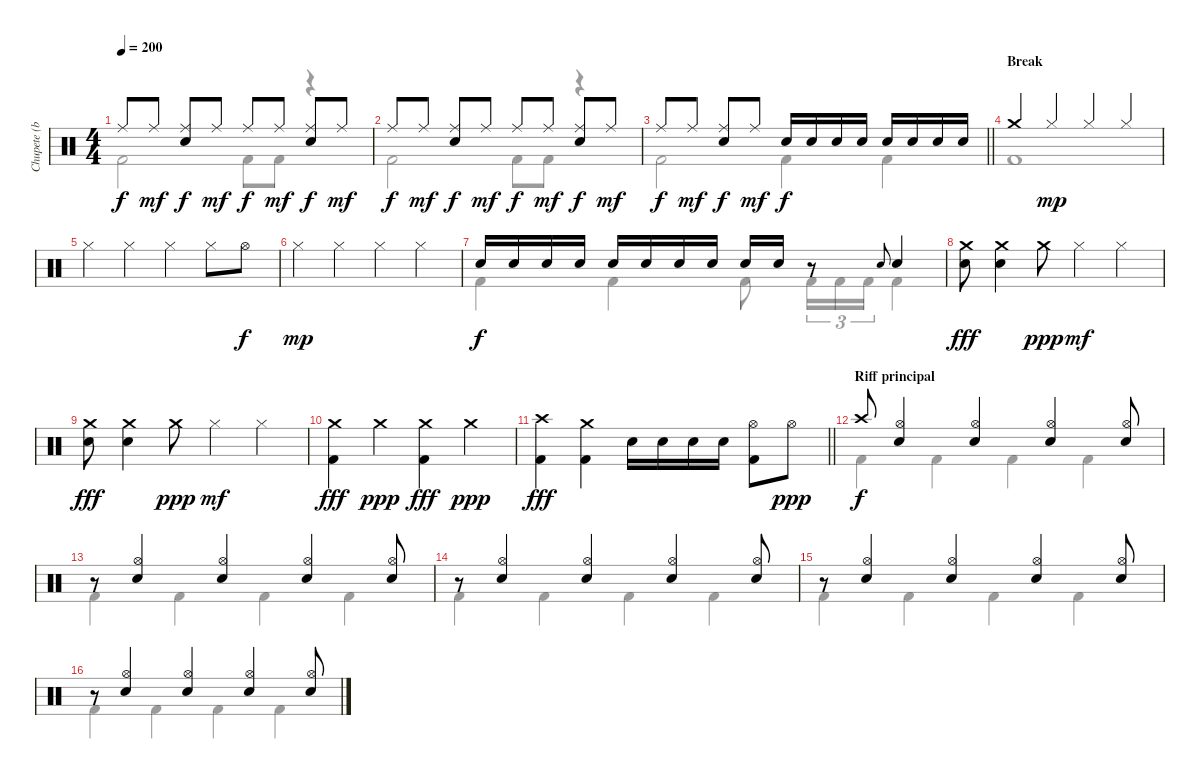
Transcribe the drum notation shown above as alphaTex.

\track ("Chupete (batería)" "Chupete (b") {instrument percussion}
\staff {score}
\articulation defaults
\voice
\ts (4 4)
\tempo 200
\clef neutral
\ks c "Ride (middle)".8{dy f} "Ride (middle)".8{dy mf}
("Ride (middle)" "Electric Snare (hit)").8{dy f} "Ride (middle)".8{dy mf} "Ride (middle)".8{dy f} "Ride (middle)".8{dy mf} ("Ride (middle)" "Electric Snare (hit)").8{dy f} "Ride (middle)".8{dy mf} |
"Ride (middle)".8{dy f} "Ride (middle)".8{dy mf} ("Ride (middle)" "Electric Snare (hit)").8{dy f} "Ride (middle)".8{dy mf} "Ride (middle)".8{dy f} "Ride (middle)".8{dy mf} ("Ride (middle)" "Electric Snare (hit)").8{dy f} "Ride (middle)".8{dy mf} |
\barLineRight lightlight "Ride (middle)".8{dy f} "Ride (middle)".8{dy mf}
("Ride (middle)" "Electric Snare (hit)").8{dy f} "Ride (middle)".8{dy mf} "Electric Snare (hit)".16{dy f} "Electric Snare (hit)".16 "Electric Snare (hit)".16 "Electric Snare (hit)".16 "Electric Snare (hit)".16 "Electric Snare (hit)".16 "Electric Snare (hit)".16 "Electric Snare (hit)".16 |
\section ("" "Break")
"Crash medium (hit)".4 "Hi-Hat (closed)".4{dy mp} "Hi-Hat (closed)".4 "Hi-Hat (closed)".4 |
"Hi-Hat (closed)".4 "Hi-Hat (closed)".4 "Hi-Hat (closed)".4 "Hi-Hat (closed)".8 "Hi-Hat (open)".8{dy f} |
"Hi-Hat (closed)".4{dy mp} "Hi-Hat (closed)".4 "Hi-Hat (closed)".4 "Hi-Hat (closed)".4 |
"Electric Snare (hit)".16{dy f} "Electric Snare (hit)".16 "Electric Snare (hit)".16 "Electric Snare (hit)".16 "Electric Snare (hit)".16 "Electric Snare (hit)".16 "Electric Snare (hit)".16 "Electric Snare (hit)".16 "Electric Snare (hit)".16 "Electric Snare (hit)".16 r.8 "Electric Snare (hit)".8{gr onbeat} "Electric Snare (hit)".4 |
("Crash medium (hit)" "Electric Snare (hit)").8{dy fff} ("Crash medium (hit)" "Electric Snare (hit)").4 "Crash medium (hit)".8{dy ppp} "Hi-Hat (closed)".4{dy mf} "Hi-Hat (closed)".4 |
("Crash medium (hit)" "Electric Snare (hit)").8{dy fff} ("Crash medium (hit)" "Electric Snare (hit)").4 "Crash medium (hit)".8{dy ppp} "Hi-Hat (closed)".4{dy mf} "Hi-Hat (closed)".4 |
("Crash medium (hit)" "Kick (hit) 2").4{dy fff} "Crash medium (hit)".4{dy ppp} ("Crash medium (hit)" "Kick (hit) 2").4{dy fff} "Crash medium (hit)".4{dy ppp} |
\barLineRight lightlight
("Crash high (hit)" "Kick (hit) 2").4{dy fff} ("Crash medium (hit)" "Kick (hit) 2").4 "Electric Snare (hit)".16 "Electric Snare (hit)".16 "Electric Snare (hit)".16 "Electric Snare (hit)".16 ("Hi-Hat (open)" "Kick (hit) 2").8 "Hi-Hat (open)".8{dy ppp} |
\section ("" "Riff principal")
"Crash high (hit)".8{dy f} ("Hi-Hat (open)" "Electric Snare (hit)").4 ("Hi-Hat (open)" "Electric Snare (hit)").4 ("Hi-Hat (open)" "Electric Snare (hit)").4 ("Hi-Hat (open)" "Electric Snare (hit)").8 |
r.8 ("Hi-Hat (open)" "Electric Snare (hit)").4 ("Hi-Hat (open)" "Electric Snare (hit)").4 ("Hi-Hat (open)" "Electric Snare (hit)").4 ("Hi-Hat (open)" "Electric Snare (hit)").8 |
r.8 ("Hi-Hat (open)" "Electric Snare (hit)").4 ("Hi-Hat (open)" "Electric Snare (hit)").4 ("Hi-Hat (open)" "Electric Snare (hit)").4 ("Hi-Hat (open)" "Electric Snare (hit)").8 |
r.8 ("Hi-Hat (open)" "Electric Snare (hit)").4 ("Hi-Hat (open)" "Electric Snare (hit)").4 ("Hi-Hat (open)" "Electric Snare (hit)").4 ("Hi-Hat (open)" "Electric Snare (hit)").8 |
r.8 ("Hi-Hat (open)" "Electric Snare (hit)").4 ("Hi-Hat (open)" "Electric Snare (hit)").4 ("Hi-Hat (open)" "Electric Snare (hit)").4 ("Hi-Hat (open)" "Electric Snare (hit)").8
\voice
\clef neutral
\ottava regular
\simile none
\ks c "Kick (hit) 2".2{dy f} "Kick (hit) 2".8 "Kick (hit) 2".8
r.4 |
"Kick (hit) 2".2 "Kick (hit) 2".8 "Kick (hit) 2".8 r.4 |
\barLineRight lightlight "Kick (hit) 2".2 "Kick (hit) 2".4 "Kick (hit) 2".4
|
"Kick (hit) 2".1 |
|
|
"Kick (hit) 2".4 "Kick (hit) 2".4 "Kick (hit) 2".8 "Kick (hit) 2".16{tu (3 2)} "Kick (hit) 2".16{tu (3 2)} "Kick (hit) 2".16{tu (3 2)} "Kick (hit) 2".4 |
|
|
|
\barLineRight lightlight
|
"Kick (hit) 2".4 "Kick (hit) 2".4 "Kick (hit) 2".4 "Kick (hit) 2".4 |
"Kick (hit) 2".4 "Kick (hit) 2".4 "Kick (hit) 2".4 "Kick (hit) 2".4 |
"Kick (hit) 2".4 "Kick (hit) 2".4 "Kick (hit) 2".4 "Kick (hit) 2".4 |
"Kick (hit) 2".4 "Kick (hit) 2".4 "Kick (hit) 2".4 "Kick (hit) 2".4 |
"Kick (hit) 2".4 "Kick (hit) 2".4 "Kick (hit) 2".4 "Kick (hit) 2".4
